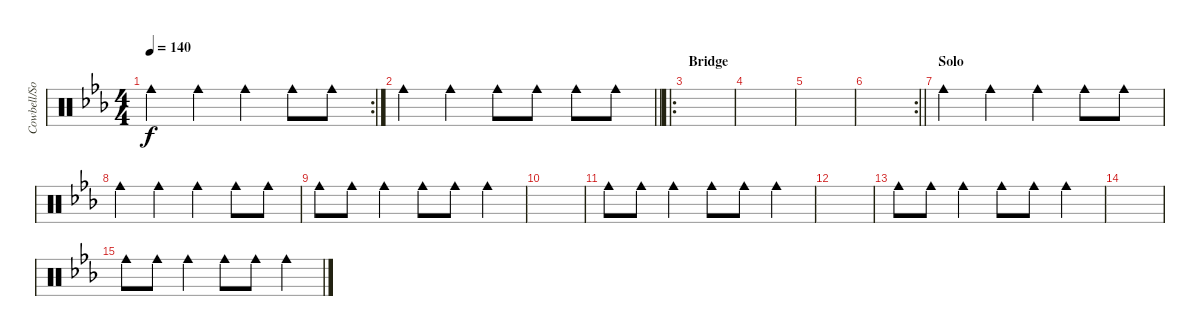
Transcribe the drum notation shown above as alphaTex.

\track ("Cowbell/Sound FX (Leah)" "Cowbell/So") {instrument percussion}
\staff {score}
\articulation defaults
\rc 2
\ts (4 4)
\tempo 140
\clef neutral
\ks cminor "Cowbell medium (hit)".4{dy f} "Cowbell medium (hit)".4 "Cowbell medium (hit)".4 "Cowbell medium (hit)".8 "Cowbell medium (hit)".8
|
\barLineRight lightlight "Cowbell medium (hit)".4 "Cowbell medium (hit)".4 "Cowbell medium (hit)".8 "Cowbell medium (hit)".8 "Cowbell medium (hit)".8 "Cowbell medium (hit)".8
|
\ro
\section ("" "Bridge")
|
|
|
\rc 2
\barLineRight lightlight
|
\section ("" "Solo")
"Cowbell medium (hit)".4 "Cowbell medium (hit)".4 "Cowbell medium (hit)".4 "Cowbell medium (hit)".8 "Cowbell medium (hit)".8 |
"Cowbell medium (hit)".4 "Cowbell medium (hit)".4 "Cowbell medium (hit)".4 "Cowbell medium (hit)".8 "Cowbell medium (hit)".8 |
"Cowbell medium (hit)".8 "Cowbell medium (hit)".8 "Cowbell medium (hit)".4 "Cowbell medium (hit)".8 "Cowbell medium (hit)".8 "Cowbell medium (hit)".4 |
|
"Cowbell medium (hit)".8 "Cowbell medium (hit)".8 "Cowbell medium (hit)".4 "Cowbell medium (hit)".8 "Cowbell medium (hit)".8 "Cowbell medium (hit)".4 |
|
"Cowbell medium (hit)".8 "Cowbell medium (hit)".8 "Cowbell medium (hit)".4 "Cowbell medium (hit)".8 "Cowbell medium (hit)".8 "Cowbell medium (hit)".4 |
|
"Cowbell medium (hit)".8 "Cowbell medium (hit)".8 "Cowbell medium (hit)".4 "Cowbell medium (hit)".8 "Cowbell medium (hit)".8 "Cowbell medium (hit)".4
